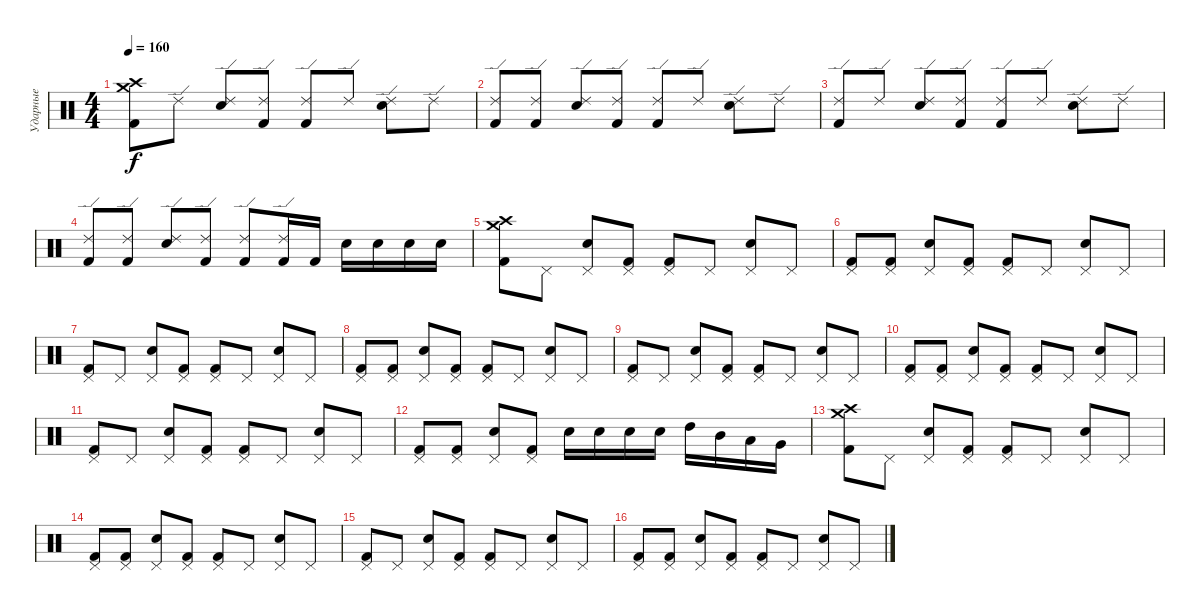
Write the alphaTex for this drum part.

\track ("Ударные" "Ударные") {instrument percussion}
\staff {score}
\articulation defaults
\ts (4 4)
\tempo 160
\clef neutral
\ks c
("Crash medium (hit)" "Crash high (hit)" "Kick (hit) 2").8{dy f} "Ride (edge) 2".8 ("Ride (edge) 2" "Electric Snare (hit)").8 ("Ride (edge) 2" "Kick (hit) 2").8 ("Ride (edge) 2" "Kick (hit) 2").8 "Ride (edge) 2".8 ("Ride (edge) 2" "Electric Snare (hit)").8 "Ride (edge) 2".8 |
("Ride (edge) 2" "Kick (hit) 2").8 ("Ride (edge) 2" "Kick (hit) 2").8 ("Ride (edge) 2" "Electric Snare (hit)").8 ("Ride (edge) 2" "Kick (hit) 2").8 ("Ride (edge) 2" "Kick (hit) 2").8 "Ride (edge) 2".8 ("Ride (edge) 2" "Electric Snare (hit)").8 "Ride (edge) 2".8 |
("Ride (edge) 2" "Kick (hit) 2").8 "Ride (edge) 2".8 ("Ride (edge) 2" "Electric Snare (hit)").8 ("Ride (edge) 2" "Kick (hit) 2").8 ("Ride (edge) 2" "Kick (hit) 2").8 "Ride (edge) 2".8 ("Ride (edge) 2" "Electric Snare (hit)").8 "Ride (edge) 2".8 |
("Ride (edge) 2" "Kick (hit) 2").8 ("Ride (edge) 2" "Kick (hit) 2").8 ("Ride (edge) 2" "Electric Snare (hit)").8 ("Ride (edge) 2" "Kick (hit) 2").8 ("Ride (edge) 2" "Kick (hit) 2").8 ("Ride (edge) 2" "Kick (hit) 2").16 "Kick (hit) 2".16 "Electric Snare (hit)".16 "Electric Snare (hit)".16 "Electric Snare (hit)".16 "Electric Snare (hit)".16 |
("Crash medium (hit)" "Crash high (hit)" "Kick (hit) 2").8 "Pedal Hi-Hat (hit)".8 ("Pedal Hi-Hat (hit)" "Electric Snare (hit)").8 ("Pedal Hi-Hat (hit)" "Kick (hit) 2").8 ("Pedal Hi-Hat (hit)" "Kick (hit) 2").8 "Pedal Hi-Hat (hit)".8 ("Pedal Hi-Hat (hit)" "Electric Snare (hit)").8 "Pedal Hi-Hat (hit)".8 |
("Pedal Hi-Hat (hit)" "Kick (hit) 2").8 ("Pedal Hi-Hat (hit)" "Kick (hit) 2").8 ("Pedal Hi-Hat (hit)" "Electric Snare (hit)").8 ("Pedal Hi-Hat (hit)" "Kick (hit) 2").8 ("Pedal Hi-Hat (hit)" "Kick (hit) 2").8 "Pedal Hi-Hat (hit)".8 ("Pedal Hi-Hat (hit)" "Electric Snare (hit)").8 "Pedal Hi-Hat (hit)".8 |
("Pedal Hi-Hat (hit)" "Kick (hit) 2").8 "Pedal Hi-Hat (hit)".8 ("Pedal Hi-Hat (hit)" "Electric Snare (hit)").8 ("Pedal Hi-Hat (hit)" "Kick (hit) 2").8 ("Pedal Hi-Hat (hit)" "Kick (hit) 2").8 "Pedal Hi-Hat (hit)".8 ("Pedal Hi-Hat (hit)" "Electric Snare (hit)").8 "Pedal Hi-Hat (hit)".8 |
("Pedal Hi-Hat (hit)" "Kick (hit) 2").8 ("Pedal Hi-Hat (hit)" "Kick (hit) 2").8 ("Pedal Hi-Hat (hit)" "Electric Snare (hit)").8 ("Pedal Hi-Hat (hit)" "Kick (hit) 2").8 ("Pedal Hi-Hat (hit)" "Kick (hit) 2").8 "Pedal Hi-Hat (hit)".8 ("Pedal Hi-Hat (hit)" "Electric Snare (hit)").8 "Pedal Hi-Hat (hit)".8 |
("Pedal Hi-Hat (hit)" "Kick (hit) 2").8 "Pedal Hi-Hat (hit)".8 ("Pedal Hi-Hat (hit)" "Electric Snare (hit)").8 ("Pedal Hi-Hat (hit)" "Kick (hit) 2").8 ("Pedal Hi-Hat (hit)" "Kick (hit) 2").8 "Pedal Hi-Hat (hit)".8 ("Pedal Hi-Hat (hit)" "Electric Snare (hit)").8 "Pedal Hi-Hat (hit)".8 |
("Pedal Hi-Hat (hit)" "Kick (hit) 2").8 ("Pedal Hi-Hat (hit)" "Kick (hit) 2").8 ("Pedal Hi-Hat (hit)" "Electric Snare (hit)").8 ("Pedal Hi-Hat (hit)" "Kick (hit) 2").8 ("Pedal Hi-Hat (hit)" "Kick (hit) 2").8 "Pedal Hi-Hat (hit)".8 ("Pedal Hi-Hat (hit)" "Electric Snare (hit)").8 "Pedal Hi-Hat (hit)".8 |
("Pedal Hi-Hat (hit)" "Kick (hit) 2").8 "Pedal Hi-Hat (hit)".8 ("Pedal Hi-Hat (hit)" "Electric Snare (hit)").8 ("Pedal Hi-Hat (hit)" "Kick (hit) 2").8 ("Pedal Hi-Hat (hit)" "Kick (hit) 2").8 "Pedal Hi-Hat (hit)".8 ("Pedal Hi-Hat (hit)" "Electric Snare (hit)").8 "Pedal Hi-Hat (hit)".8 |
("Pedal Hi-Hat (hit)" "Kick (hit) 2").8 ("Pedal Hi-Hat (hit)" "Kick (hit) 2").8 ("Pedal Hi-Hat (hit)" "Electric Snare (hit)").8 ("Pedal Hi-Hat (hit)" "Kick (hit) 2").8 "Electric Snare (hit)".16 "Electric Snare (hit)".16 "Electric Snare (hit)".16 "Electric Snare (hit)".16 "High Tom (hit)".16 "Mid Tom (hit)".16 "Low Tom (hit)".16 "Very Low Tom (hit)".16 |
("Crash medium (hit)" "Crash high (hit)" "Kick (hit) 2").8 "Pedal Hi-Hat (hit)".8 ("Pedal Hi-Hat (hit)" "Electric Snare (hit)").8 ("Pedal Hi-Hat (hit)" "Kick (hit) 2").8 ("Pedal Hi-Hat (hit)" "Kick (hit) 2").8 "Pedal Hi-Hat (hit)".8 ("Pedal Hi-Hat (hit)" "Electric Snare (hit)").8 "Pedal Hi-Hat (hit)".8 |
("Pedal Hi-Hat (hit)" "Kick (hit) 2").8 ("Pedal Hi-Hat (hit)" "Kick (hit) 2").8 ("Pedal Hi-Hat (hit)" "Electric Snare (hit)").8 ("Pedal Hi-Hat (hit)" "Kick (hit) 2").8 ("Pedal Hi-Hat (hit)" "Kick (hit) 2").8 "Pedal Hi-Hat (hit)".8 ("Pedal Hi-Hat (hit)" "Electric Snare (hit)").8 "Pedal Hi-Hat (hit)".8 |
("Pedal Hi-Hat (hit)" "Kick (hit) 2").8 "Pedal Hi-Hat (hit)".8 ("Pedal Hi-Hat (hit)" "Electric Snare (hit)").8 ("Pedal Hi-Hat (hit)" "Kick (hit) 2").8 ("Pedal Hi-Hat (hit)" "Kick (hit) 2").8 "Pedal Hi-Hat (hit)".8 ("Pedal Hi-Hat (hit)" "Electric Snare (hit)").8 "Pedal Hi-Hat (hit)".8 |
("Pedal Hi-Hat (hit)" "Kick (hit) 2").8 ("Pedal Hi-Hat (hit)" "Kick (hit) 2").8 ("Pedal Hi-Hat (hit)" "Electric Snare (hit)").8 ("Pedal Hi-Hat (hit)" "Kick (hit) 2").8 ("Pedal Hi-Hat (hit)" "Kick (hit) 2").8 "Pedal Hi-Hat (hit)".8 ("Pedal Hi-Hat (hit)" "Electric Snare (hit)").8 "Pedal Hi-Hat (hit)".8
